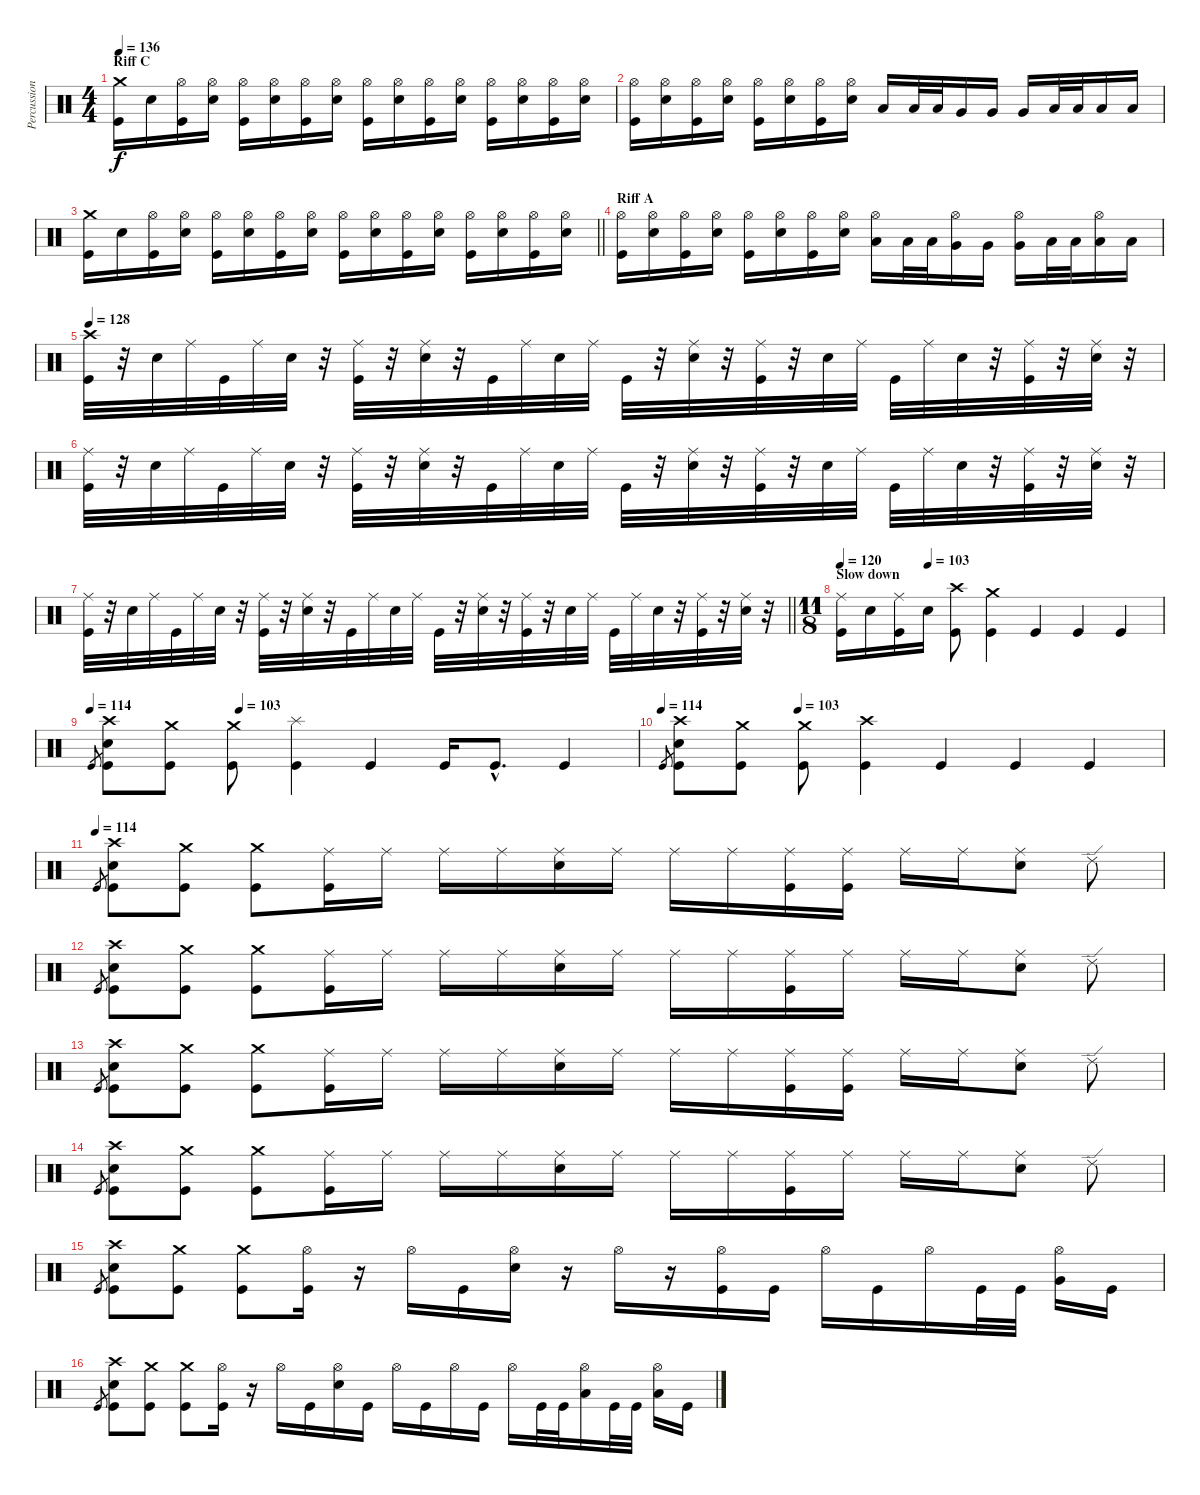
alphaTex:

\track ("Percussion" "Percussion") {instrument percussion}
\staff {score}
\articulation defaults
\ts (4 4)
\section ("" "Riff C")
\tempo 136
\clef neutral
\ks c
("Kick (hit)" "Crash medium (hit)").16{dy f} "Snare (hit) 2".16 ("Kick (hit)" "Hi-Hat (open)").16 ("Snare (hit) 2" "Hi-Hat (open)").16 ("Kick (hit)" "Hi-Hat (open)").16 ("Snare (hit) 2" "Hi-Hat (open)").16 ("Kick (hit)" "Hi-Hat (open)").16 ("Snare (hit) 2" "Hi-Hat (open)").16 ("Kick (hit)" "Hi-Hat (open)").16 ("Snare (hit) 2" "Hi-Hat (open)").16 ("Kick (hit)" "Hi-Hat (open)").16 ("Snare (hit) 2" "Hi-Hat (open)").16 ("Kick (hit)" "Hi-Hat (open)").16 ("Snare (hit) 2" "Hi-Hat (open)").16 ("Kick (hit)" "Hi-Hat (open)").16 ("Snare (hit) 2" "Hi-Hat (open)").16 |
("Kick (hit)" "Hi-Hat (open)").16 ("Snare (hit) 2" "Hi-Hat (open)").16 ("Kick (hit)" "Hi-Hat (open)").16 ("Snare (hit) 2" "Hi-Hat (open)").16 ("Kick (hit)" "Hi-Hat (open)").16 ("Snare (hit) 2" "Hi-Hat (open)").16 ("Kick (hit)" "Hi-Hat (open)").16 ("Snare (hit) 2" "Hi-Hat (open)").16 "Low Tom (hit)".16 "Low Tom (hit)".32 "Low Tom (hit)".32 "Very Low Tom (hit)".16 "Very Low Tom (hit)".16 "Very Low Tom (hit)".16 "Low Floor Tom (hit)".32 "Low Floor Tom (hit)".32 "Low Floor Tom (hit)".16 "Low Floor Tom (hit)".16 |
\barLineRight lightlight
("Kick (hit)" "Crash medium (hit)").16 "Snare (hit) 2".16 ("Kick (hit)" "Hi-Hat (open)").16 ("Snare (hit) 2" "Hi-Hat (open)").16 ("Kick (hit)" "Hi-Hat (open)").16 ("Snare (hit) 2" "Hi-Hat (open)").16 ("Kick (hit)" "Hi-Hat (open)").16 ("Snare (hit) 2" "Hi-Hat (open)").16 ("Kick (hit)" "Hi-Hat (open)").16 ("Snare (hit) 2" "Hi-Hat (open)").16 ("Kick (hit)" "Hi-Hat (open)").16 ("Snare (hit) 2" "Hi-Hat (open)").16 ("Kick (hit)" "Hi-Hat (open)").16 ("Snare (hit) 2" "Hi-Hat (open)").16 ("Kick (hit)" "Hi-Hat (open)").16 ("Snare (hit) 2" "Hi-Hat (open)").16 |
\section ("" "Riff A")
("Kick (hit)" "Hi-Hat (open)").16 ("Snare (hit) 2" "Hi-Hat (open)").16 ("Kick (hit)" "Hi-Hat (open)").16 ("Snare (hit) 2" "Hi-Hat (open)").16 ("Kick (hit)" "Hi-Hat (open)").16 ("Snare (hit) 2" "Hi-Hat (open)").16 ("Kick (hit)" "Hi-Hat (open)").16 ("Snare (hit) 2" "Hi-Hat (open)").16 ("Low Tom (hit)" "Hi-Hat (open)").16 "Low Tom (hit)".32 "Low Tom (hit)".32 ("Very Low Tom (hit)" "Hi-Hat (open)").16 "Very Low Tom (hit)".16 ("Very Low Tom (hit)" "Hi-Hat (open)").16 "Low Floor Tom (hit)".32 "Low Floor Tom (hit)".32 ("Low Floor Tom (hit)" "Hi-Hat (open)").16 "Low Floor Tom (hit)".16 |
\tempo 128
("Kick (hit)" "Crash high (hit)").32 r.32 "Snare (hit) 2".32 "Ride (middle)".32 "Kick (hit)".32 "Ride (middle)".32 "Snare (hit) 2".32 r.32 ("Kick (hit)" "Ride (middle)").32 r.32 ("Snare (hit) 2" "Ride (middle)").32 r.32 "Kick (hit)".32 "Ride (middle)".32 "Snare (hit) 2".32 "Ride (middle)".32 "Kick (hit)".32 r.32 ("Snare (hit) 2" "Ride (middle)").32 r.32 ("Kick (hit)" "Ride (middle)").32 r.32 "Snare (hit) 2".32 "Ride (middle)".32 "Kick (hit)".32 "Ride (middle)".32 "Snare (hit) 2".32 r.32 ("Kick (hit)" "Ride (middle)").32 r.32 ("Snare (hit) 2" "Ride (middle)").32 r.32 |
("Kick (hit)" "Ride (middle)").32 r.32 "Snare (hit) 2".32 "Ride (middle)".32 "Kick (hit)".32 "Ride (middle)".32 "Snare (hit) 2".32 r.32 ("Kick (hit)" "Ride (middle)").32 r.32 ("Snare (hit) 2" "Ride (middle)").32 r.32 "Kick (hit)".32 "Ride (middle)".32 "Snare (hit) 2".32 "Ride (middle)".32 "Kick (hit)".32 r.32 ("Snare (hit) 2" "Ride (middle)").32 r.32 ("Kick (hit)" "Ride (middle)").32 r.32 "Snare (hit) 2".32 "Ride (middle)".32 "Kick (hit)".32 "Ride (middle)".32 "Snare (hit) 2".32 r.32 ("Kick (hit)" "Ride (middle)").32 r.32 ("Snare (hit) 2" "Ride (middle)").32 r.32 |
\barLineRight lightlight
("Kick (hit)" "Ride (middle)").32 r.32 "Snare (hit) 2".32 "Ride (middle)".32 "Kick (hit)".32 "Ride (middle)".32 "Snare (hit) 2".32 r.32 ("Kick (hit)" "Ride (middle)").32 r.32 ("Snare (hit) 2" "Ride (middle)").32 r.32 "Kick (hit)".32 "Ride (middle)".32 "Snare (hit) 2".32 "Ride (middle)".32 "Kick (hit)".32 r.32 ("Snare (hit) 2" "Ride (middle)").32 r.32 ("Kick (hit)" "Ride (middle)").32 r.32 "Snare (hit) 2".32 "Ride (middle)".32 "Kick (hit)".32 "Ride (middle)".32 "Snare (hit) 2".32 r.32 ("Kick (hit)" "Ride (middle)").32 r.32 ("Snare (hit) 2" "Ride (middle)").32 r.32 |
\ts (11 8)
\section ("" "Slow down")
\tempo 120
\tempo (103 0.2727272727272727)
("Kick (hit)" "Ride (middle)").16 "Snare (hit) 2".16 ("Kick (hit)" "Ride (middle)").16 "Snare (hit) 2".16 ("Kick (hit)" "Crash high (hit)").8 ("Kick (hit)" "Crash medium (hit)").4 "Kick (hit)".4 "Kick (hit)".4 "Kick (hit)".4 |
\tempo 114
\tempo (103 0.2727272727272727)
"Kick (hit)".8{gr} ("Kick (hit)" "Snare (hit) 2" "Crash high (hit)").8 ("Kick (hit)" "Crash medium (hit)").8 ("Kick (hit)" "Crash medium (hit)").8 ("Kick (hit)" "Splash (hit)").4 "Kick (hit)".4 "Kick (hit)".16 "Kick (hit)"{hac}.8{d} "Kick (hit)".4 |
\tempo 114
\tempo (103 0.2727272727272727)
"Kick (hit)".8{gr} ("Kick (hit)" "Snare (hit) 2" "Crash high (hit)").8 ("Kick (hit)" "Crash medium (hit)").8 ("Kick (hit)" "Crash medium (hit)").8 ("Kick (hit)" "Crash high (hit)").4 "Kick (hit)".4 "Kick (hit)".4 "Kick (hit)".4 |
\tempo (114)
"Kick (hit)".8{gr} ("Kick (hit)" "Snare (hit) 2" "Crash high (hit)").8 ("Kick (hit)" "Crash medium (hit)").8 ("Kick (hit)" "Crash medium (hit)").8 ("Kick (hit)" "Ride (middle)").16 "Ride (middle)".16 "Ride (middle)".16 "Ride (middle)".16 ("Snare (hit) 2" "Ride (middle)").16 "Ride (middle)".16 "Ride (middle)".16 "Ride (middle)".16 ("Kick (hit)" "Ride (middle)").16 ("Kick (hit)" "Ride (middle)").16 "Ride (middle)".16 "Ride (middle)".16 ("Snare (hit) 2" "Ride (middle)").8 "Ride (edge) 2".8 |
"Kick (hit)".8{gr} ("Kick (hit)" "Snare (hit) 2" "Crash high (hit)").8 ("Kick (hit)" "Crash medium (hit)").8 ("Kick (hit)" "Crash medium (hit)").8 ("Kick (hit)" "Ride (middle)").16 "Ride (middle)".16 "Ride (middle)".16 "Ride (middle)".16 ("Snare (hit) 2" "Ride (middle)").16 "Ride (middle)".16 "Ride (middle)".16 "Ride (middle)".16 ("Kick (hit)" "Ride (middle)").16 "Ride (middle)".16 "Ride (middle)".16 "Ride (middle)".16 ("Snare (hit) 2" "Ride (middle)").8 "Ride (edge) 2".8 |
"Kick (hit)".8{gr} ("Kick (hit)" "Snare (hit) 2" "Crash high (hit)").8 ("Kick (hit)" "Crash medium (hit)").8 ("Kick (hit)" "Crash medium (hit)").8 ("Kick (hit)" "Ride (middle)").16 "Ride (middle)".16 "Ride (middle)".16 "Ride (middle)".16 ("Snare (hit) 2" "Ride (middle)").16 "Ride (middle)".16 "Ride (middle)".16 "Ride (middle)".16 ("Kick (hit)" "Ride (middle)").16 ("Kick (hit)" "Ride (middle)").16 "Ride (middle)".16 "Ride (middle)".16 ("Snare (hit) 2" "Ride (middle)").8 "Ride (edge) 2".8 |
"Kick (hit)".8{gr} ("Kick (hit)" "Snare (hit) 2" "Crash high (hit)").8 ("Kick (hit)" "Crash medium (hit)").8 ("Kick (hit)" "Crash medium (hit)").8 ("Kick (hit)" "Ride (middle)").16 "Ride (middle)".16 "Ride (middle)".16 "Ride (middle)".16 ("Snare (hit) 2" "Ride (middle)").16 "Ride (middle)".16 "Ride (middle)".16 "Ride (middle)".16 ("Kick (hit)" "Ride (middle)").16 "Ride (middle)".16 "Ride (middle)".16 "Ride (middle)".16 ("Snare (hit) 2" "Ride (middle)").8 "Ride (edge) 2".8 |
"Kick (hit)".8{gr} ("Kick (hit)" "Snare (hit) 2" "Crash high (hit)").8 ("Kick (hit)" "Crash medium (hit)").8 ("Kick (hit)" "Crash medium (hit)").8 ("Kick (hit)" "Hi-Hat (open)").16 r.16 "Hi-Hat (open)".16 "Kick (hit)".16 ("Snare (hit) 2" "Hi-Hat (open)").16 r.16 "Hi-Hat (open)".16 r.16 ("Kick (hit)" "Hi-Hat (open)").16 "Kick (hit)".16 "Hi-Hat (open)".16 "Kick (hit)".16 "Hi-Hat (open)".16 "Kick (hit)".32 "Kick (hit)".32 ("Very Low Tom (hit)" "Hi-Hat (open)").16 "Kick (hit)".16 |
"Kick (hit)".8{gr} ("Kick (hit)" "Snare (hit) 2" "Crash high (hit)").8 ("Kick (hit)" "Crash medium (hit)").8 ("Kick (hit)" "Crash medium (hit)").8 ("Kick (hit)" "Hi-Hat (open)").16 r.16 "Hi-Hat (open)".16 "Kick (hit)".16 ("Snare (hit) 2" "Hi-Hat (open)").16 "Kick (hit)".16 "Hi-Hat (open)".16 "Kick (hit)".16 "Hi-Hat (open)".16 "Kick (hit)".16 "Hi-Hat (open)".16 "Kick (hit)".32 "Kick (hit)".32 ("Low Tom (hit)" "Hi-Hat (open)").16 "Kick (hit)".32 "Kick (hit)".32 ("Low Tom (hit)" "Hi-Hat (open)").16 "Kick (hit)".16
